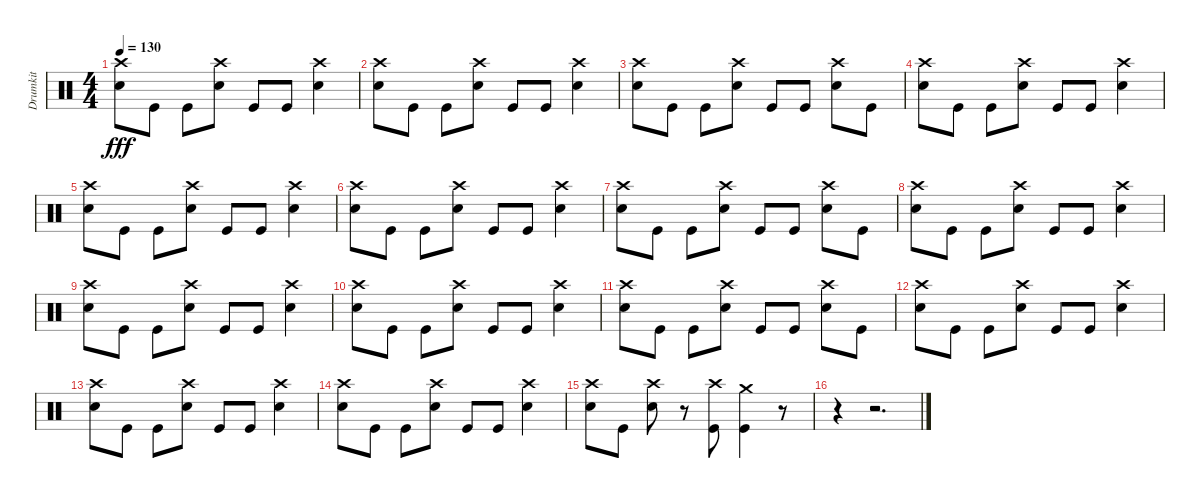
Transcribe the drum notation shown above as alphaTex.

\track ("Drumkit" "Drumkit") {instrument percussion}
\staff {score}
\articulation defaults
\ts (4 4)
\tempo 130
\clef neutral
\ks c
("Snare (hit) 2" "Crash high (hit)").8{dy fff} "Kick (hit)".8 "Kick (hit)".8 ("Snare (hit) 2" "Crash high (hit)").8 "Kick (hit)".8 "Kick (hit)".8 ("Snare (hit) 2" "Crash high (hit)").4 |
("Snare (hit) 2" "Crash high (hit)").8 "Kick (hit)".8 "Kick (hit)".8 ("Snare (hit) 2" "Crash high (hit)").8 "Kick (hit)".8 "Kick (hit)".8 ("Snare (hit) 2" "Crash high (hit)").4 |
("Snare (hit) 2" "Crash high (hit)").8 "Kick (hit)".8 "Kick (hit)".8 ("Snare (hit) 2" "Crash high (hit)").8 "Kick (hit)".8 "Kick (hit)".8 ("Snare (hit) 2" "Crash high (hit)").8 "Kick (hit)".8 |
("Snare (hit) 2" "Crash high (hit)").8 "Kick (hit)".8 "Kick (hit)".8 ("Snare (hit) 2" "Crash high (hit)").8 "Kick (hit)".8 "Kick (hit)".8 ("Snare (hit) 2" "Crash high (hit)").4 |
("Snare (hit) 2" "Crash high (hit)").8 "Kick (hit)".8 "Kick (hit)".8 ("Snare (hit) 2" "Crash high (hit)").8 "Kick (hit)".8 "Kick (hit)".8 ("Snare (hit) 2" "Crash high (hit)").4 |
("Snare (hit) 2" "Crash high (hit)").8 "Kick (hit)".8 "Kick (hit)".8 ("Snare (hit) 2" "Crash high (hit)").8 "Kick (hit)".8 "Kick (hit)".8 ("Snare (hit) 2" "Crash high (hit)").4 |
("Snare (hit) 2" "Crash high (hit)").8 "Kick (hit)".8 "Kick (hit)".8 ("Snare (hit) 2" "Crash high (hit)").8 "Kick (hit)".8 "Kick (hit)".8 ("Snare (hit) 2" "Crash high (hit)").8 "Kick (hit)".8 |
("Snare (hit) 2" "Crash high (hit)").8 "Kick (hit)".8 "Kick (hit)".8 ("Snare (hit) 2" "Crash high (hit)").8 "Kick (hit)".8 "Kick (hit)".8 ("Snare (hit) 2" "Crash high (hit)").4 |
("Snare (hit) 2" "Crash high (hit)").8 "Kick (hit)".8 "Kick (hit)".8 ("Snare (hit) 2" "Crash high (hit)").8 "Kick (hit)".8 "Kick (hit)".8 ("Snare (hit) 2" "Crash high (hit)").4 |
("Snare (hit) 2" "Crash high (hit)").8 "Kick (hit)".8 "Kick (hit)".8 ("Snare (hit) 2" "Crash high (hit)").8 "Kick (hit)".8 "Kick (hit)".8 ("Snare (hit) 2" "Crash high (hit)").4 |
("Snare (hit) 2" "Crash high (hit)").8 "Kick (hit)".8 "Kick (hit)".8 ("Snare (hit) 2" "Crash high (hit)").8 "Kick (hit)".8 "Kick (hit)".8 ("Snare (hit) 2" "Crash high (hit)").8 "Kick (hit)".8 |
("Snare (hit) 2" "Crash high (hit)").8 "Kick (hit)".8 "Kick (hit)".8 ("Snare (hit) 2" "Crash high (hit)").8 "Kick (hit)".8 "Kick (hit)".8 ("Snare (hit) 2" "Crash high (hit)").4 |
("Snare (hit) 2" "Crash high (hit)").8 "Kick (hit)".8 "Kick (hit)".8 ("Snare (hit) 2" "Crash high (hit)").8 "Kick (hit)".8 "Kick (hit)".8 ("Snare (hit) 2" "Crash high (hit)").4 |
("Snare (hit) 2" "Crash high (hit)").8 "Kick (hit)".8 "Kick (hit)".8 ("Snare (hit) 2" "Crash high (hit)").8 "Kick (hit)".8 "Kick (hit)".8 ("Snare (hit) 2" "Crash high (hit)").4 |
("Snare (hit) 2" "Crash high (hit)").8 "Kick (hit)".8 ("Crash high (hit)" "Snare (hit) 2").8 r.8 ("Kick (hit)" "Crash high (hit)").8 ("Kick (hit)" "Crash medium (hit)").4 r.8 |
r.4 r.2{d}
